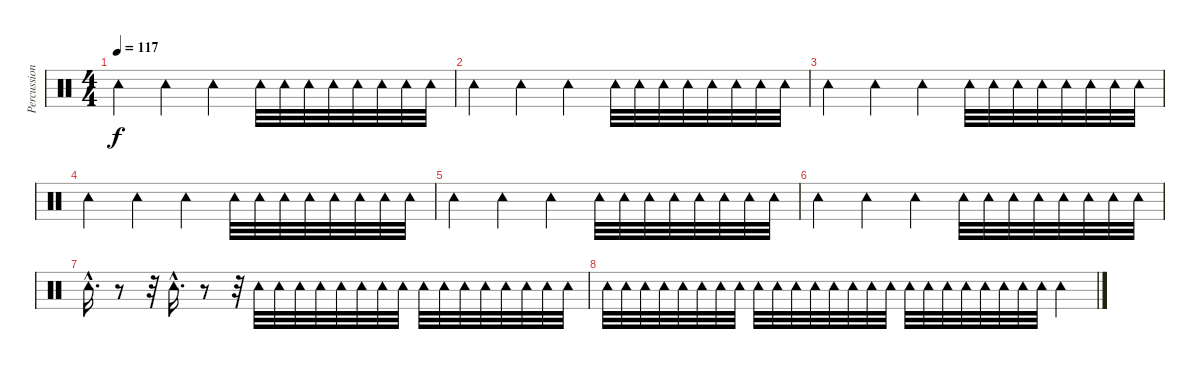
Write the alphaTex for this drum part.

\track ("Percussion" "Percussion") {instrument percussion}
\staff {score}
\articulation defaults
\ts (4 4)
\tempo 117
\clef neutral
\ks c "Tambourine (hit)".4{dy f} "Tambourine (hit)".4 "Tambourine (hit)".4 "Tambourine (hit)".32 "Tambourine (hit)".32 "Tambourine (hit)".32 "Tambourine (hit)".32 "Tambourine (hit)".32 "Tambourine (hit)".32 "Tambourine (hit)".32 "Tambourine (hit)".32
|
"Tambourine (hit)".4 "Tambourine (hit)".4 "Tambourine (hit)".4 "Tambourine (hit)".32 "Tambourine (hit)".32 "Tambourine (hit)".32 "Tambourine (hit)".32 "Tambourine (hit)".32 "Tambourine (hit)".32 "Tambourine (hit)".32 "Tambourine (hit)".32 |
"Tambourine (hit)".4 "Tambourine (hit)".4 "Tambourine (hit)".4 "Tambourine (hit)".32 "Tambourine (hit)".32 "Tambourine (hit)".32 "Tambourine (hit)".32 "Tambourine (hit)".32 "Tambourine (hit)".32 "Tambourine (hit)".32 "Tambourine (hit)".32 |
"Tambourine (hit)".4 "Tambourine (hit)".4 "Tambourine (hit)".4 "Tambourine (hit)".32 "Tambourine (hit)".32 "Tambourine (hit)".32 "Tambourine (hit)".32 "Tambourine (hit)".32 "Tambourine (hit)".32 "Tambourine (hit)".32 "Tambourine (hit)".32 |
"Tambourine (hit)".4 "Tambourine (hit)".4 "Tambourine (hit)".4 "Tambourine (hit)".32 "Tambourine (hit)".32 "Tambourine (hit)".32 "Tambourine (hit)".32 "Tambourine (hit)".32 "Tambourine (hit)".32 "Tambourine (hit)".32 "Tambourine (hit)".32 |
"Tambourine (hit)".4 "Tambourine (hit)".4 "Tambourine (hit)".4 "Tambourine (hit)".32 "Tambourine (hit)".32 "Tambourine (hit)".32 "Tambourine (hit)".32 "Tambourine (hit)".32 "Tambourine (hit)".32 "Tambourine (hit)".32 "Tambourine (hit)".32 |
"Tambourine (hit)"{hac}.16{d} r.8 r.32 "Tambourine (hit)"{hac}.16{d} r.8 r.32 "Tambourine (hit)".32 "Tambourine (hit)".32 "Tambourine (hit)".32 "Tambourine (hit)".32 "Tambourine (hit)".32 "Tambourine (hit)".32 "Tambourine (hit)".32 "Tambourine (hit)".32 "Tambourine (hit)".32 "Tambourine (hit)".32 "Tambourine (hit)".32 "Tambourine (hit)".32 "Tambourine (hit)".32 "Tambourine (hit)".32 "Tambourine (hit)".32 "Tambourine (hit)".32 |
"Tambourine (hit)".32 "Tambourine (hit)".32 "Tambourine (hit)".32 "Tambourine (hit)".32 "Tambourine (hit)".32 "Tambourine (hit)".32 "Tambourine (hit)".32 "Tambourine (hit)".32 "Tambourine (hit)".32 "Tambourine (hit)".32 "Tambourine (hit)".32 "Tambourine (hit)".32 "Tambourine (hit)".32 "Tambourine (hit)".32 "Tambourine (hit)".32 "Tambourine (hit)".32 "Tambourine (hit)".32 "Tambourine (hit)".32 "Tambourine (hit)".32 "Tambourine (hit)".32 "Tambourine (hit)".32 "Tambourine (hit)".32 "Tambourine (hit)".32 "Tambourine (hit)".32 "Tambourine (hit)".4
